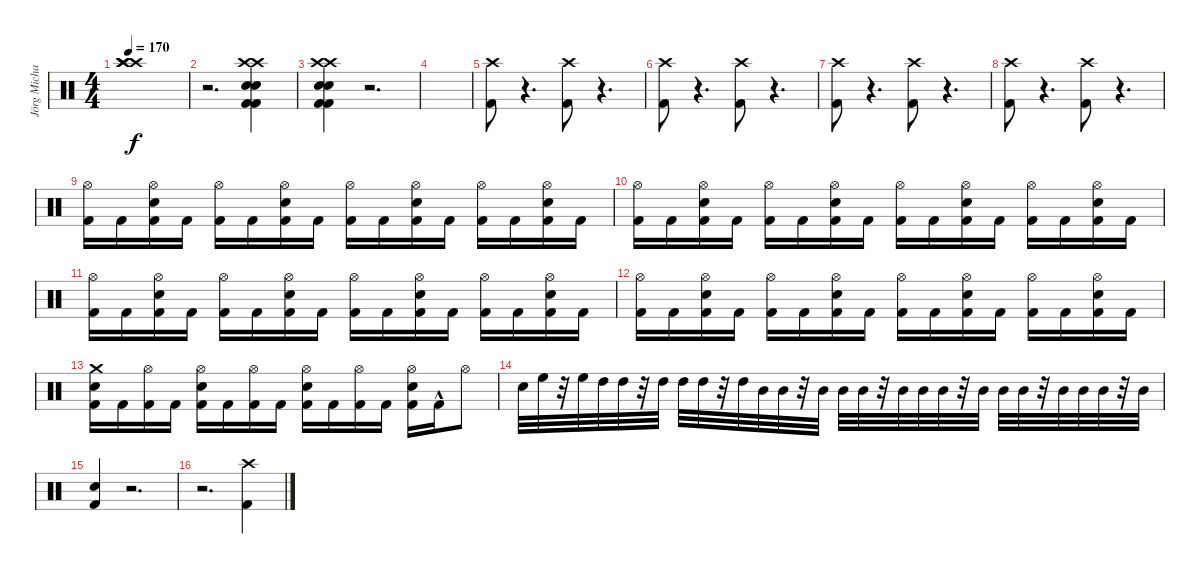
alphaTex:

\track ("Jörg Michael (Drums)" "Jörg Micha") {instrument percussion}
\staff {score}
\articulation defaults
\ts (4 4)
\tempo 170
\clef neutral
\ks c
("Crash high (hit)" "Crash high (hit)" "Crash high (hit)" "Crash high (hit)").1{dy f} |
r.2{d} ("Crash high (hit)" "Crash high (hit)" "Snare (hit) 2" "Snare (hit) 2" "Kick (hit) 2" "Kick (hit) 2").4 |
("Crash high (hit)" "Crash high (hit)" "Snare (hit) 2" "Snare (hit) 2" "Kick (hit) 2" "Kick (hit) 2").4 r.2{d} |
|
("Crash high (hit)" "Kick (hit) 2").8 r.4{d} ("Crash high (hit)" "Kick (hit) 2").8 r.4{d} |
("Crash high (hit)" "Kick (hit) 2").8 r.4{d} ("Crash high (hit)" "Kick (hit) 2").8 r.4{d} |
("Crash high (hit)" "Kick (hit) 2").8 r.4{d} ("Crash high (hit)" "Kick (hit) 2").8 r.4{d} |
("Crash high (hit)" "Kick (hit) 2").8 r.4{d} ("Crash high (hit)" "Kick (hit) 2").8 r.4{d} |
("Kick (hit) 2" "Hi-Hat (open)").16 "Kick (hit) 2".16 ("Snare (hit) 2" "Kick (hit) 2" "Hi-Hat (open)").16 "Kick (hit) 2".16 ("Kick (hit) 2" "Hi-Hat (open)").16 "Kick (hit) 2".16 ("Snare (hit) 2" "Kick (hit) 2" "Hi-Hat (open)").16 "Kick (hit) 2".16 ("Kick (hit) 2" "Hi-Hat (open)").16 "Kick (hit) 2".16 ("Snare (hit) 2" "Kick (hit) 2" "Hi-Hat (open)").16 "Kick (hit) 2".16 ("Kick (hit) 2" "Hi-Hat (open)").16 "Kick (hit) 2".16 ("Snare (hit) 2" "Kick (hit) 2" "Hi-Hat (open)").16 "Kick (hit) 2".16 |
("Kick (hit) 2" "Hi-Hat (open)").16 "Kick (hit) 2".16 ("Snare (hit) 2" "Kick (hit) 2" "Hi-Hat (open)").16 "Kick (hit) 2".16 ("Kick (hit) 2" "Hi-Hat (open)").16 "Kick (hit) 2".16 ("Snare (hit) 2" "Kick (hit) 2" "Hi-Hat (open)").16 "Kick (hit) 2".16 ("Kick (hit) 2" "Hi-Hat (open)").16 "Kick (hit) 2".16 ("Snare (hit) 2" "Kick (hit) 2" "Hi-Hat (open)").16 "Kick (hit) 2".16 ("Kick (hit) 2" "Hi-Hat (open)").16 "Kick (hit) 2".16 ("Snare (hit) 2" "Kick (hit) 2" "Hi-Hat (open)").16 "Kick (hit) 2".16 |
("Kick (hit) 2" "Hi-Hat (open)").16 "Kick (hit) 2".16 ("Snare (hit) 2" "Kick (hit) 2" "Hi-Hat (open)").16 "Kick (hit) 2".16 ("Kick (hit) 2" "Hi-Hat (open)").16 "Kick (hit) 2".16 ("Snare (hit) 2" "Kick (hit) 2" "Hi-Hat (open)").16 "Kick (hit) 2".16 ("Kick (hit) 2" "Hi-Hat (open)").16 "Kick (hit) 2".16 ("Snare (hit) 2" "Kick (hit) 2" "Hi-Hat (open)").16 "Kick (hit) 2".16 ("Kick (hit) 2" "Hi-Hat (open)").16 "Kick (hit) 2".16 ("Snare (hit) 2" "Kick (hit) 2" "Hi-Hat (open)").16 "Kick (hit) 2".16 |
("Kick (hit) 2" "Hi-Hat (open)").16 "Kick (hit) 2".16 ("Snare (hit) 2" "Kick (hit) 2" "Hi-Hat (open)").16 "Kick (hit) 2".16 ("Kick (hit) 2" "Hi-Hat (open)").16 "Kick (hit) 2".16 ("Snare (hit) 2" "Kick (hit) 2" "Hi-Hat (open)").16 "Kick (hit) 2".16 ("Kick (hit) 2" "Hi-Hat (open)").16 "Kick (hit) 2".16 ("Snare (hit) 2" "Kick (hit) 2" "Hi-Hat (open)").16 "Kick (hit) 2".16 ("Kick (hit) 2" "Hi-Hat (open)").16 "Kick (hit) 2".16 ("Snare (hit) 2" "Kick (hit) 2" "Hi-Hat (open)").16 "Kick (hit) 2".16 |
("Kick (hit) 2" "Snare (hit) 2" "Crash medium (hit)").16 "Kick (hit) 2".16 ("Kick (hit) 2" "Hi-Hat (open)").16 "Kick (hit) 2".16 ("Kick (hit) 2" "Snare (hit) 2" "Hi-Hat (open)").16 "Kick (hit) 2".16 ("Kick (hit) 2" "Hi-Hat (open)").16 "Kick (hit) 2".16 ("Kick (hit) 2" "Snare (hit) 2" "Hi-Hat (open)").16 "Kick (hit) 2".16 ("Kick (hit) 2" "Hi-Hat (open)").16 "Kick (hit) 2".16 ("Kick (hit) 2" "Snare (hit) 2" "Hi-Hat (open)").16 "Kick (hit) 2"{hac}.16 "Hi-Hat (open)".8 |
"Snare (hit) 2".32 "High Floor Tom (hit)".32 r.32 "High Floor Tom (hit)".32 "High Tom (hit)".32 "High Tom (hit)".32 r.32 "High Tom (hit)".32 "High Tom (hit)".32 "High Tom (hit)".32 r.32 "High Tom (hit)".32 "Mid Tom (hit)".32 "Mid Tom (hit)".32 r.32 "Mid Tom (hit)".32 "Mid Tom (hit)".32 "Mid Tom (hit)".32 r.32 "Mid Tom (hit)".32 "Mid Tom (hit)".32 "Mid Tom (hit)".32 r.32 "Mid Tom (hit)".32 "Mid Tom (hit)".32 "Mid Tom (hit)".32 r.32 "Mid Tom (hit)".32 "Mid Tom (hit)".32 "Mid Tom (hit)".32 r.32 "Mid Tom (hit)".32 |
("Snare (hit) 2" "Kick (hit) 2").4 r.2{d} |
r.2{d} ("Crash high (hit)" "Kick (hit) 2").4
